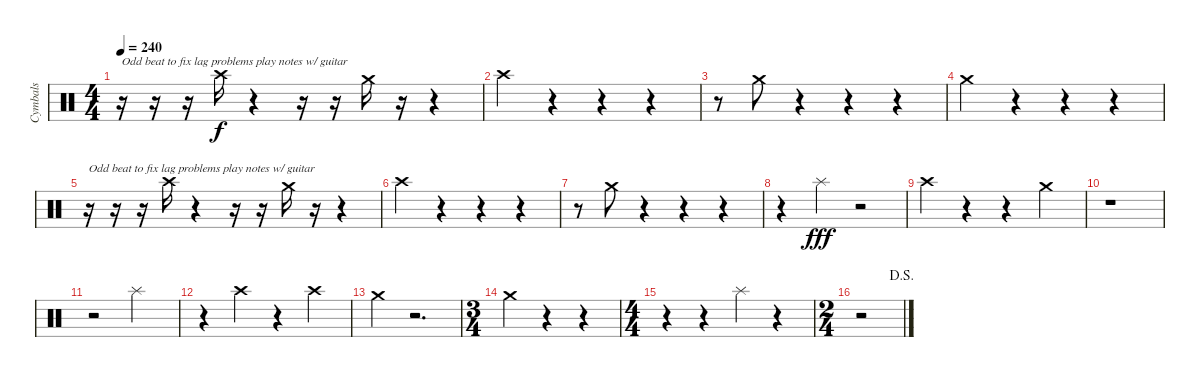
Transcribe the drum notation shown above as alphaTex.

\track ("Cymbals" "Cymbals") {instrument percussion}
\staff {score}
\articulation defaults
\ts (4 4)
\tempo 240
\clef neutral
\ks c
r.16{txt "Odd beat to fix lag problems play notes w/ guitar" dy f} r.16 r.16 "Crash high (hit)".16 r.4 r.16 r.16 "Crash medium (hit)".16 r.16 r.4 |
"Crash high (hit)".4 r.4 r.4 r.4 |
r.8 "Crash medium (hit)".8 r.4 r.4 r.4 |
"Crash medium (hit)".4 r.4 r.4 r.4 |
r.16{txt "Odd beat to fix lag problems play notes w/ guitar"} r.16 r.16 "Crash high (hit)".16 r.4 r.16 r.16 "Crash medium (hit)".16 r.16 r.4 |
"Crash high (hit)".4 r.4 r.4 r.4 |
r.8 "Crash medium (hit)".8 r.4 r.4 r.4 |
r.4 "Splash (hit)".4{dy fff} r.2 |
"Crash high (hit)".4 r.4 r.4 "Crash medium (hit)".4 |
r.1 |
r.2 "Splash (hit)".2 |
r.4 "Crash high (hit)".4 r.4 "Crash high (hit)".4 |
"Crash medium (hit)".4 r.2{d} |
\ts (3 4)
"Crash medium (hit)".4 r.4 r.4 |
\ts (4 4)
r.4 r.4 "Splash (hit)".4 r.4 |
\ts (2 4)
\jump dalsegno
r.2
